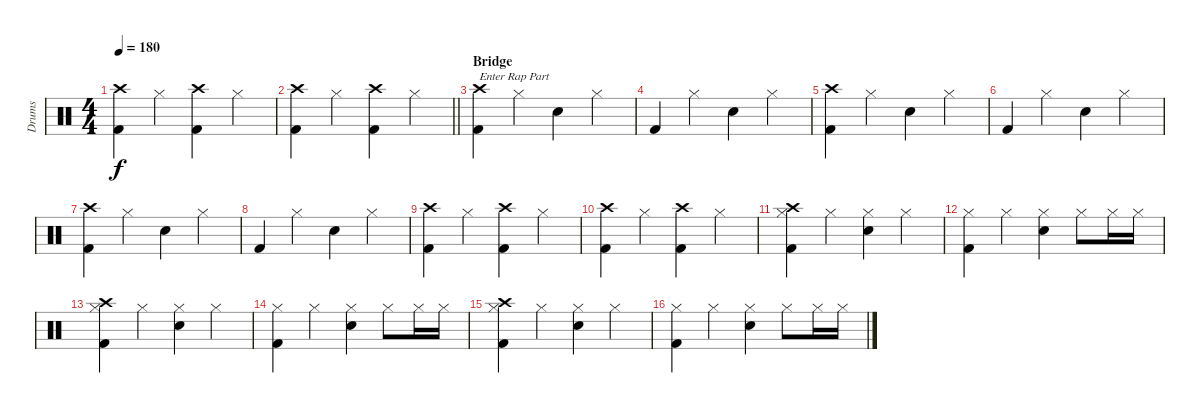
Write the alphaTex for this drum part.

\track ("Drums" "Drums") {instrument percussion}
\staff
\articulation defaults
\ts (4 4)
\tempo 180
\clef neutral
\ks c
("Crash high (hit)" "Kick (hit) 2").4{dy f} "Hi-Hat (closed)".4 ("Crash high (hit)" "Kick (hit) 2").4 "Hi-Hat (closed)".4 |
\barLineRight lightlight
("Crash high (hit)" "Kick (hit) 2").4 "Hi-Hat (closed)".4 ("Crash high (hit)" "Kick (hit) 2").4 "Hi-Hat (closed)".4 |
\section ("" "Bridge")
("Crash high (hit)" "Kick (hit) 2").4{txt "Enter Rap Part"} "Hi-Hat (closed)".4 "Electric Snare (hit)".4 "Hi-Hat (closed)".4 |
"Kick (hit) 2".4 "Hi-Hat (closed)".4 "Electric Snare (hit)".4 "Hi-Hat (closed)".4 |
("Crash high (hit)" "Kick (hit) 2").4 "Hi-Hat (closed)".4 "Electric Snare (hit)".4 "Hi-Hat (closed)".4 |
"Kick (hit) 2".4 "Hi-Hat (closed)".4 "Electric Snare (hit)".4 "Hi-Hat (closed)".4 |
("Crash high (hit)" "Kick (hit) 2").4 "Hi-Hat (closed)".4 "Electric Snare (hit)".4 "Hi-Hat (closed)".4 |
"Kick (hit) 2".4 "Hi-Hat (closed)".4 "Electric Snare (hit)".4 "Hi-Hat (closed)".4 |
("Crash high (hit)" "Kick (hit) 2").4 "Hi-Hat (closed)".4 ("Crash high (hit)" "Kick (hit) 2").4 "Hi-Hat (closed)".4 |
("Crash high (hit)" "Kick (hit) 2").4 "Hi-Hat (closed)".4 ("Crash high (hit)" "Kick (hit) 2").4 "Hi-Hat (closed)".4 |
("Crash high (hit)" "Hi-Hat (closed)" "Kick (hit) 2").4 "Hi-Hat (closed)".4 ("Hi-Hat (closed)" "Electric Snare (hit)").4 "Hi-Hat (closed)".4 |
("Hi-Hat (closed)" "Kick (hit) 2").4 "Hi-Hat (closed)".4 ("Hi-Hat (closed)" "Electric Snare (hit)").4 "Hi-Hat (closed)".8 "Hi-Hat (closed)".16 "Hi-Hat (closed)".16 |
("Crash high (hit)" "Hi-Hat (closed)" "Kick (hit) 2").4 "Hi-Hat (closed)".4 ("Hi-Hat (closed)" "Electric Snare (hit)").4 "Hi-Hat (closed)".4 |
("Hi-Hat (closed)" "Kick (hit) 2").4 "Hi-Hat (closed)".4 ("Hi-Hat (closed)" "Electric Snare (hit)").4 "Hi-Hat (closed)".8 "Hi-Hat (closed)".16 "Hi-Hat (closed)".16 |
("Crash high (hit)" "Hi-Hat (closed)" "Kick (hit) 2").4 "Hi-Hat (closed)".4 ("Hi-Hat (closed)" "Electric Snare (hit)").4 "Hi-Hat (closed)".4 |
("Hi-Hat (closed)" "Kick (hit) 2").4 "Hi-Hat (closed)".4 ("Hi-Hat (closed)" "Electric Snare (hit)").4 "Hi-Hat (closed)".8 "Hi-Hat (closed)".16 "Hi-Hat (closed)".16
